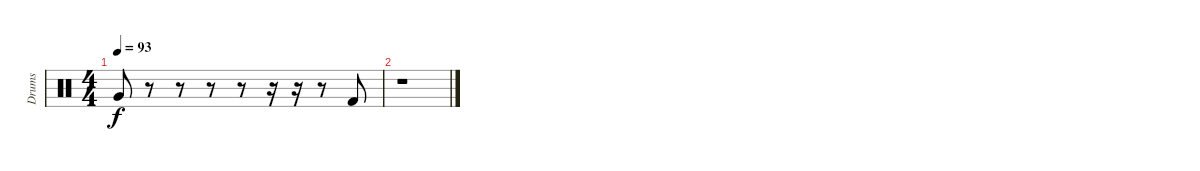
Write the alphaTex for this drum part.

\track ("Drums" "Drums") {instrument percussion}
\staff {score}
\articulation defaults
\ts (4 4)
\tempo 93
\clef neutral
\ks c "Very Low Tom (hit)".8{dy f}
r.8 r.8 r.8 r.8 r.16 r.16 r.8 "Kick (hit) 2".8 |
r.1
